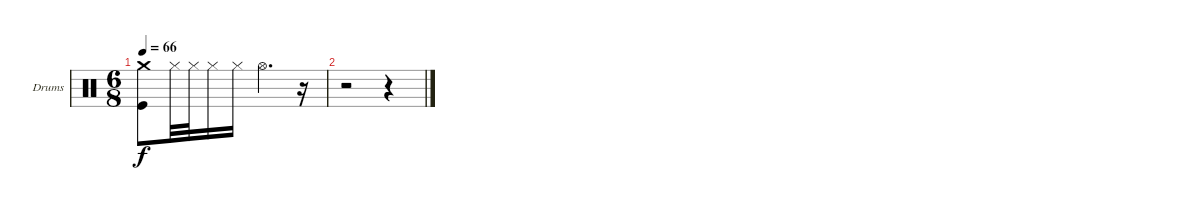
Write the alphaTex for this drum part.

\defaultSystemsLayout 4
\bracketExtendMode groupsimilarinstruments
\firstSystemTrackNameOrientation horizontal
\otherSystemsTrackNameOrientation horizontal
\track ("Drums" "Drums") {instrument percussion}
\staff {score}
\articulation defaults
\ts (6 8)
\tempo 66
\clef neutral
\ks c
("Crash medium (hit)" "Kick (hit)").8{dy f} "Hi-Hat (closed)".32 "Hi-Hat (closed)".32 "Hi-Hat (closed)".16 "Hi-Hat (closed)".16 "Hi-Hat (open)".4{d} r.16 |
r.2 r.4
